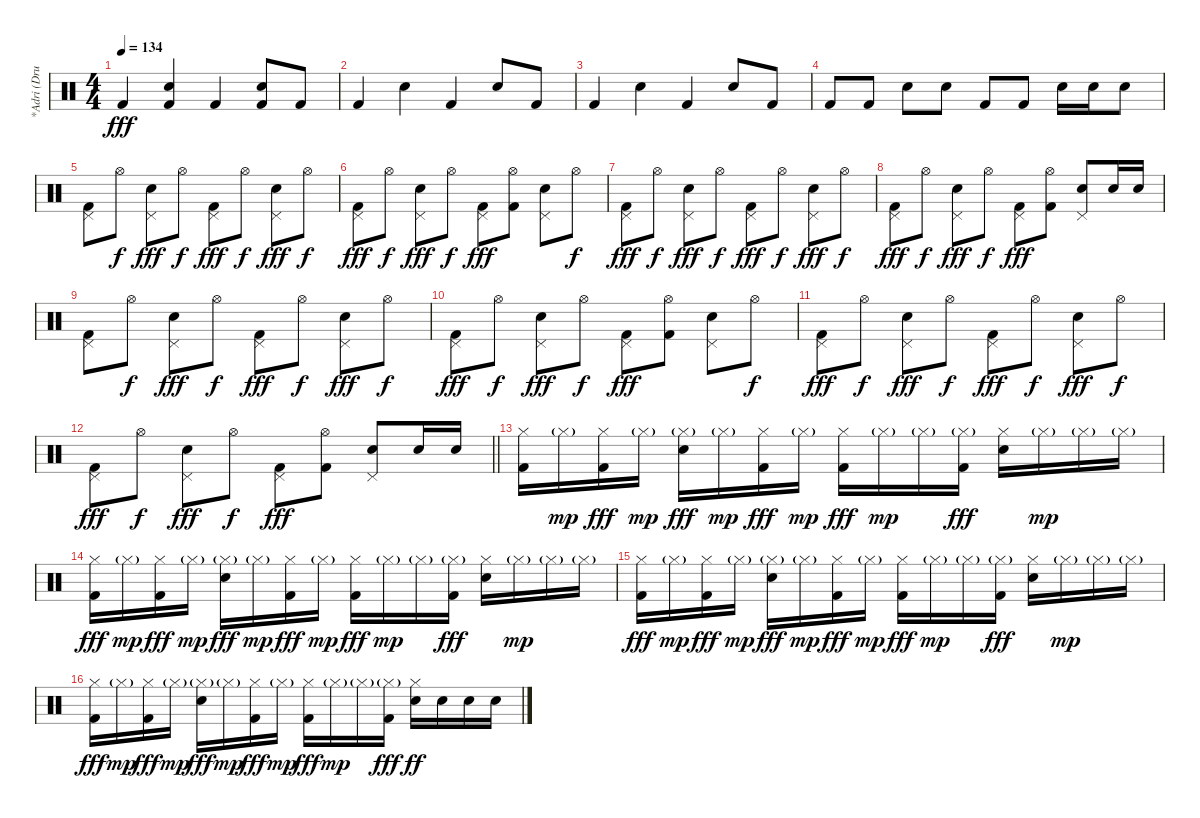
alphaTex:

\track ("*Adri (Drum)" "*Adri (Dru") {instrument percussion}
\staff {score}
\articulation defaults
\ts (4 4)
\tempo 134
\clef neutral
\ks c "Kick (hit) 2".4{dy fff}
("Snare (hit) 2" "Kick (hit) 2").4 "Kick (hit) 2".4 ("Snare (hit) 2" "Kick (hit) 2").8 "Kick (hit) 2".8 |
"Kick (hit) 2".4 "Snare (hit) 2".4 "Kick (hit) 2".4 "Snare (hit) 2".8 "Kick (hit) 2".8 |
"Kick (hit) 2".4 "Snare (hit) 2".4 "Kick (hit) 2".4 "Snare (hit) 2".8 "Kick (hit) 2".8 |
"Kick (hit) 2".8 "Kick (hit) 2".8 "Snare (hit) 2".8 "Snare (hit) 2".8 "Kick (hit) 2".8 "Kick (hit) 2".8 "Snare (hit) 2".16 "Snare (hit) 2".16 "Snare (hit) 2".8 |
("Pedal Hi-Hat (hit)" "Kick (hit) 2").8 "Hi-Hat (open)".8{dy f} ("Pedal Hi-Hat (hit)" "Snare (hit) 2").8{dy fff} "Hi-Hat (open)".8{dy f} ("Pedal Hi-Hat (hit)" "Kick (hit) 2").8{dy fff} "Hi-Hat (open)".8{dy f} ("Pedal Hi-Hat (hit)" "Snare (hit) 2").8{dy fff} "Hi-Hat (open)".8{dy f} |
("Pedal Hi-Hat (hit)" "Kick (hit) 2").8{dy fff} "Hi-Hat (open)".8{dy f} ("Pedal Hi-Hat (hit)" "Snare (hit) 2").8{dy fff} "Hi-Hat (open)".8{dy f} ("Pedal Hi-Hat (hit)" "Kick (hit) 2").8{dy fff} ("Hi-Hat (open)" "Kick (hit) 2").8 ("Pedal Hi-Hat (hit)" "Snare (hit) 2").8 "Hi-Hat (open)".8{dy f} |
("Pedal Hi-Hat (hit)" "Kick (hit) 2").8{dy fff} "Hi-Hat (open)".8{dy f} ("Pedal Hi-Hat (hit)" "Snare (hit) 2").8{dy fff} "Hi-Hat (open)".8{dy f} ("Pedal Hi-Hat (hit)" "Kick (hit) 2").8{dy fff} "Hi-Hat (open)".8{dy f} ("Pedal Hi-Hat (hit)" "Snare (hit) 2").8{dy fff} "Hi-Hat (open)".8{dy f} |
("Pedal Hi-Hat (hit)" "Kick (hit) 2").8{dy fff} "Hi-Hat (open)".8{dy f} ("Pedal Hi-Hat (hit)" "Snare (hit) 2").8{dy fff} "Hi-Hat (open)".8{dy f} ("Pedal Hi-Hat (hit)" "Kick (hit) 2").8{dy fff} ("Hi-Hat (open)" "Kick (hit) 2").8 ("Pedal Hi-Hat (hit)" "Snare (hit) 2").8 "Snare (hit) 2".16 "Snare (hit) 2".16 |
("Pedal Hi-Hat (hit)" "Kick (hit) 2").8 "Hi-Hat (open)".8{dy f} ("Pedal Hi-Hat (hit)" "Snare (hit) 2").8{dy fff} "Hi-Hat (open)".8{dy f} ("Pedal Hi-Hat (hit)" "Kick (hit) 2").8{dy fff} "Hi-Hat (open)".8{dy f} ("Pedal Hi-Hat (hit)" "Snare (hit) 2").8{dy fff} "Hi-Hat (open)".8{dy f} |
("Pedal Hi-Hat (hit)" "Kick (hit) 2").8{dy fff} "Hi-Hat (open)".8{dy f} ("Pedal Hi-Hat (hit)" "Snare (hit) 2").8{dy fff} "Hi-Hat (open)".8{dy f} ("Pedal Hi-Hat (hit)" "Kick (hit) 2").8{dy fff} ("Hi-Hat (open)" "Kick (hit) 2").8 ("Pedal Hi-Hat (hit)" "Snare (hit) 2").8 "Hi-Hat (open)".8{dy f} |
("Pedal Hi-Hat (hit)" "Kick (hit) 2").8{dy fff} "Hi-Hat (open)".8{dy f} ("Pedal Hi-Hat (hit)" "Snare (hit) 2").8{dy fff} "Hi-Hat (open)".8{dy f} ("Pedal Hi-Hat (hit)" "Kick (hit) 2").8{dy fff} "Hi-Hat (open)".8{dy f} ("Pedal Hi-Hat (hit)" "Snare (hit) 2").8{dy fff} "Hi-Hat (open)".8{dy f} |
\barLineRight lightlight
("Pedal Hi-Hat (hit)" "Kick (hit) 2").8{dy fff} "Hi-Hat (open)".8{dy f} ("Pedal Hi-Hat (hit)" "Snare (hit) 2").8{dy fff} "Hi-Hat (open)".8{dy f} ("Pedal Hi-Hat (hit)" "Kick (hit) 2").8{dy fff} ("Hi-Hat (open)" "Kick (hit) 2").8 ("Pedal Hi-Hat (hit)" "Snare (hit) 2").8 "Snare (hit) 2".16 "Snare (hit) 2".16 |
\section ("" "")
("Hi-Hat (closed)" "Kick (hit) 2").16 "Hi-Hat (closed)"{g}.16{dy mp} ("Hi-Hat (closed)" "Kick (hit) 2").16{dy fff} "Hi-Hat (closed)"{g}.16{dy mp} ("Hi-Hat (closed)"{g} "Snare (hit) 2").16{dy fff} "Hi-Hat (closed)"{g}.16{dy mp} ("Hi-Hat (closed)" "Kick (hit) 2").16{dy fff} "Hi-Hat (closed)"{g}.16{dy mp} ("Hi-Hat (closed)" "Kick (hit) 2").16{dy fff} "Hi-Hat (closed)"{g}.16{dy mp} "Hi-Hat (closed)"{g}.16 ("Hi-Hat (closed)"{g} "Kick (hit) 2").16{dy fff} ("Hi-Hat (closed)" "Snare (hit) 2").16 "Hi-Hat (closed)"{g}.16{dy mp} "Hi-Hat (closed)"{g}.16 "Hi-Hat (closed)"{g}.16 |
("Hi-Hat (closed)" "Kick (hit) 2").16{dy fff} "Hi-Hat (closed)"{g}.16{dy mp} ("Hi-Hat (closed)" "Kick (hit) 2").16{dy fff} "Hi-Hat (closed)"{g}.16{dy mp} ("Hi-Hat (closed)"{g} "Snare (hit) 2").16{dy fff} "Hi-Hat (closed)"{g}.16{dy mp} ("Hi-Hat (closed)" "Kick (hit) 2").16{dy fff} "Hi-Hat (closed)"{g}.16{dy mp} ("Hi-Hat (closed)" "Kick (hit) 2").16{dy fff} "Hi-Hat (closed)"{g}.16{dy mp} "Hi-Hat (closed)"{g}.16 ("Hi-Hat (closed)"{g} "Kick (hit) 2").16{dy fff} ("Hi-Hat (closed)" "Snare (hit) 2").16 "Hi-Hat (closed)"{g}.16{dy mp} "Hi-Hat (closed)"{g}.16 "Hi-Hat (closed)"{g}.16 |
("Hi-Hat (closed)" "Kick (hit) 2").16{dy fff} "Hi-Hat (closed)"{g}.16{dy mp} ("Hi-Hat (closed)" "Kick (hit) 2").16{dy fff} "Hi-Hat (closed)"{g}.16{dy mp} ("Hi-Hat (closed)"{g} "Snare (hit) 2").16{dy fff} "Hi-Hat (closed)"{g}.16{dy mp} ("Hi-Hat (closed)" "Kick (hit) 2").16{dy fff} "Hi-Hat (closed)"{g}.16{dy mp} ("Hi-Hat (closed)" "Kick (hit) 2").16{dy fff} "Hi-Hat (closed)"{g}.16{dy mp} "Hi-Hat (closed)"{g}.16 ("Hi-Hat (closed)"{g} "Kick (hit) 2").16{dy fff} ("Hi-Hat (closed)" "Snare (hit) 2").16 "Hi-Hat (closed)"{g}.16{dy mp} "Hi-Hat (closed)"{g}.16 "Hi-Hat (closed)"{g}.16 |
("Hi-Hat (closed)" "Kick (hit) 2").16{dy fff} "Hi-Hat (closed)"{g}.16{dy mp} ("Hi-Hat (closed)" "Kick (hit) 2").16{dy fff} "Hi-Hat (closed)"{g}.16{dy mp} ("Hi-Hat (closed)"{g} "Snare (hit) 2").16{dy fff} "Hi-Hat (closed)"{g}.16{dy mp} ("Hi-Hat (closed)" "Kick (hit) 2").16{dy fff} "Hi-Hat (closed)"{g}.16{dy mp} ("Hi-Hat (closed)" "Kick (hit) 2").16{dy fff} "Hi-Hat (closed)"{g}.16{dy mp} "Hi-Hat (closed)"{g}.16 ("Hi-Hat (closed)"{g} "Kick (hit) 2").16{dy fff} ("Hi-Hat (closed)" "Snare (hit) 2").16{dy ff} "Snare (hit) 2".16 "Snare (hit) 2".16 "Snare (hit) 2".16
